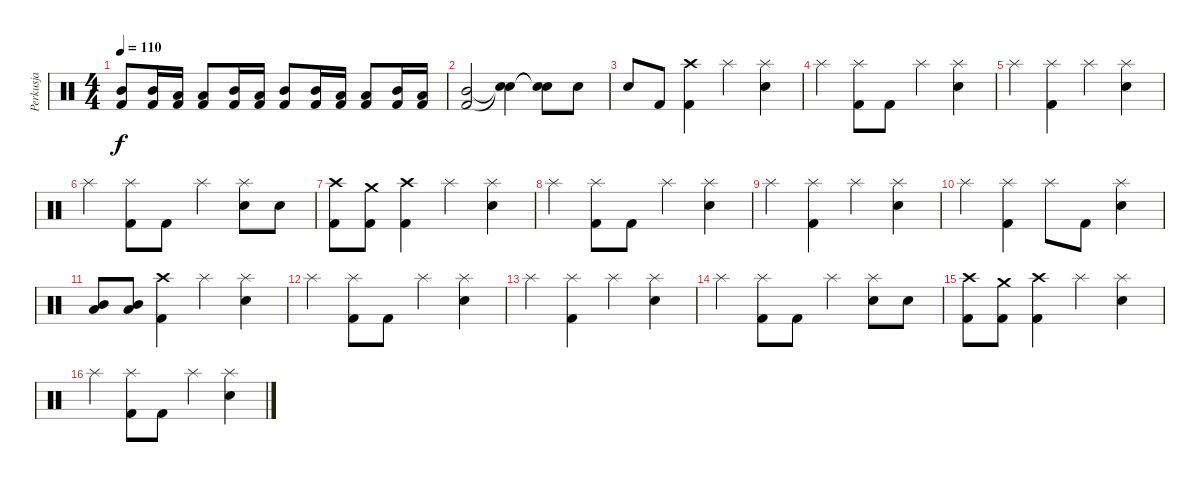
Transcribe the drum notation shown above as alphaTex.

\track ("Perkusja" "Perkusja") {instrument percussion}
\staff {score}
\articulation defaults
\ts (4 4)
\tempo 110
\clef neutral
\ks c
("Mid Tom (hit)" "Kick (hit) 2").8{dy f} ("Mid Tom (hit)" "Kick (hit) 2").16 ("Low Tom (hit)" "Kick (hit) 2").16 ("Low Tom (hit)" "Kick (hit) 2").8 ("Mid Tom (hit)" "Kick (hit) 2").16 ("Low Tom (hit)" "Kick (hit) 2").16 ("Mid Tom (hit)" "Kick (hit) 2").8 ("Mid Tom (hit)" "Kick (hit) 2").16 ("Low Tom (hit)" "Kick (hit) 2").16 ("Low Tom (hit)" "Kick (hit) 2").8 ("Mid Tom (hit)" "Kick (hit) 2").16 ("Low Tom (hit)" "Kick (hit) 2").16 |
("Mid Tom (hit)" "Kick (hit) 2").2 ("Snare (hit)"{t} "Snare (hit)"{t}).4 ("Snare (hit)"{t} "Snare (hit)"{t}).8 "Snare (hit) 2".8 |
"Snare (hit) 2".8{volume 14} "Kick (hit) 2".8 ("Crash high (hit)" "Kick (hit) 2").4 "Splash (hit)".4 ("Splash (hit)" "Snare (hit) 2").4 |
"Splash (hit)".4 ("Splash (hit)" "Kick (hit) 2").8 "Kick (hit) 2".8 "Splash (hit)".4 ("Splash (hit)" "Snare (hit) 2").4 |
"Splash (hit)".4 ("Splash (hit)" "Kick (hit) 2").4 "Splash (hit)".4 ("Splash (hit)" "Snare (hit) 2").4 |
"Splash (hit)".4 ("Splash (hit)" "Kick (hit) 2").8 "Kick (hit) 2".8 "Splash (hit)".4 ("Splash (hit)" "Snare (hit) 2").8 "Snare (hit) 2".8 |
("Crash high (hit)" "Kick (hit) 2").8 ("Crash medium (hit)" "Kick (hit) 2").8 ("Crash high (hit)" "Kick (hit) 2").4 "Splash (hit)".4 ("Splash (hit)" "Snare (hit) 2").4 |
"Splash (hit)".4 ("Splash (hit)" "Kick (hit) 2").8 "Kick (hit) 2".8 "Splash (hit)".4 ("Splash (hit)" "Snare (hit) 2").4 |
"Splash (hit)".4 ("Splash (hit)" "Kick (hit) 2").4 "Splash (hit)".4 ("Splash (hit)" "Snare (hit) 2").4 |
"Splash (hit)".4 ("Splash (hit)" "Kick (hit) 2").4 "Splash (hit)".8 "Kick (hit) 2".8 ("Splash (hit)" "Snare (hit) 2").4 |
("Mid Tom (hit)" "Low Tom (hit)").8 ("Mid Tom (hit)" "Low Tom (hit)").8 ("Crash high (hit)" "Kick (hit) 2").4 "Splash (hit)".4 ("Splash (hit)" "Snare (hit) 2").4 |
"Splash (hit)".4 ("Splash (hit)" "Kick (hit) 2").8 "Kick (hit) 2".8 "Splash (hit)".4 ("Splash (hit)" "Snare (hit) 2").4 |
"Splash (hit)".4 ("Splash (hit)" "Kick (hit) 2").4 "Splash (hit)".4 ("Splash (hit)" "Snare (hit) 2").4 |
"Splash (hit)".4 ("Splash (hit)" "Kick (hit) 2").8 "Kick (hit) 2".8 "Splash (hit)".4 ("Splash (hit)" "Snare (hit) 2").8 "Snare (hit) 2".8 |
("Crash high (hit)" "Kick (hit) 2").8 ("Crash medium (hit)" "Kick (hit) 2").8 ("Crash high (hit)" "Kick (hit) 2").4 "Splash (hit)".4 ("Splash (hit)" "Snare (hit) 2").4 |
"Splash (hit)".4 ("Splash (hit)" "Kick (hit) 2").8 "Kick (hit) 2".8 "Splash (hit)".4 ("Splash (hit)" "Snare (hit) 2").4
